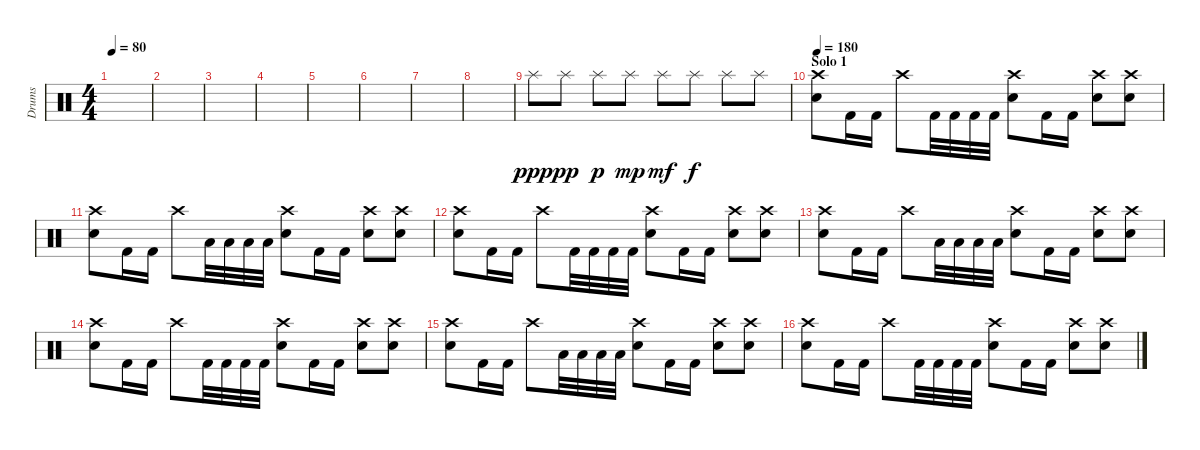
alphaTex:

\track ("Drums" "Drums") {instrument percussion}
\staff {score}
\articulation defaults
\ts (4 4)
\tempo 80
\clef neutral
\ks c
|
|
|
|
|
|
|
|
"Splash (hit)".8{dy ppp} "Splash (hit)".8{dy pp} "Splash (hit)".8{dy p} "Splash (hit)".8{dy mp} "Splash (hit)".8{dy mf} "Splash (hit)".8{dy f} "Splash (hit)".8 "Splash (hit)".8 |
\section ("" "Solo 1")
\tempo 180
("Crash high (hit)" "Electric Snare (hit)").8 "Kick (hit) 2".16 "Kick (hit) 2".16 "Crash high (hit)".8 "Kick (hit) 2".32 "Kick (hit) 2".32 "Kick (hit) 2".32 "Kick (hit) 2".32 ("Crash high (hit)" "Electric Snare (hit)").8 "Kick (hit) 2".16 "Kick (hit) 2".16 ("Crash high (hit)" "Electric Snare (hit)").8 ("Crash high (hit)" "Electric Snare (hit)").8 |
("Crash high (hit)" "Electric Snare (hit)").8 "Kick (hit) 2".16 "Kick (hit) 2".16 "Crash high (hit)".8 "Low Tom (hit)".32 "Low Tom (hit)".32 "Low Tom (hit)".32 "Low Tom (hit)".32 ("Crash high (hit)" "Electric Snare (hit)").8 "Kick (hit) 2".16 "Kick (hit) 2".16 ("Crash high (hit)" "Electric Snare (hit)").8 ("Crash high (hit)" "Electric Snare (hit)").8 |
("Crash high (hit)" "Electric Snare (hit)").8 "Kick (hit) 2".16 "Kick (hit) 2".16 "Crash high (hit)".8 "Kick (hit) 2".32 "Kick (hit) 2".32 "Kick (hit) 2".32 "Kick (hit) 2".32 ("Crash high (hit)" "Electric Snare (hit)").8 "Kick (hit) 2".16 "Kick (hit) 2".16 ("Crash high (hit)" "Electric Snare (hit)").8 ("Crash high (hit)" "Electric Snare (hit)").8 |
("Crash high (hit)" "Electric Snare (hit)").8 "Kick (hit) 2".16 "Kick (hit) 2".16 "Crash high (hit)".8 "Low Tom (hit)".32 "Low Tom (hit)".32 "Low Tom (hit)".32 "Low Tom (hit)".32 ("Crash high (hit)" "Electric Snare (hit)").8 "Kick (hit) 2".16 "Kick (hit) 2".16 ("Crash high (hit)" "Electric Snare (hit)").8 ("Crash high (hit)" "Electric Snare (hit)").8 |
("Crash high (hit)" "Electric Snare (hit)").8 "Kick (hit) 2".16 "Kick (hit) 2".16 "Crash high (hit)".8 "Kick (hit) 2".32 "Kick (hit) 2".32 "Kick (hit) 2".32 "Kick (hit) 2".32 ("Crash high (hit)" "Electric Snare (hit)").8 "Kick (hit) 2".16 "Kick (hit) 2".16 ("Crash high (hit)" "Electric Snare (hit)").8 ("Crash high (hit)" "Electric Snare (hit)").8 |
("Crash high (hit)" "Electric Snare (hit)").8 "Kick (hit) 2".16 "Kick (hit) 2".16 "Crash high (hit)".8 "Low Tom (hit)".32 "Low Tom (hit)".32 "Low Tom (hit)".32 "Low Tom (hit)".32 ("Crash high (hit)" "Electric Snare (hit)").8 "Kick (hit) 2".16 "Kick (hit) 2".16 ("Crash high (hit)" "Electric Snare (hit)").8 ("Crash high (hit)" "Electric Snare (hit)").8 |
("Crash high (hit)" "Electric Snare (hit)").8 "Kick (hit) 2".16 "Kick (hit) 2".16 "Crash high (hit)".8 "Kick (hit) 2".32 "Kick (hit) 2".32 "Kick (hit) 2".32 "Kick (hit) 2".32 ("Crash high (hit)" "Electric Snare (hit)").8 "Kick (hit) 2".16 "Kick (hit) 2".16 ("Crash high (hit)" "Electric Snare (hit)").8 ("Crash high (hit)" "Electric Snare (hit)").8
